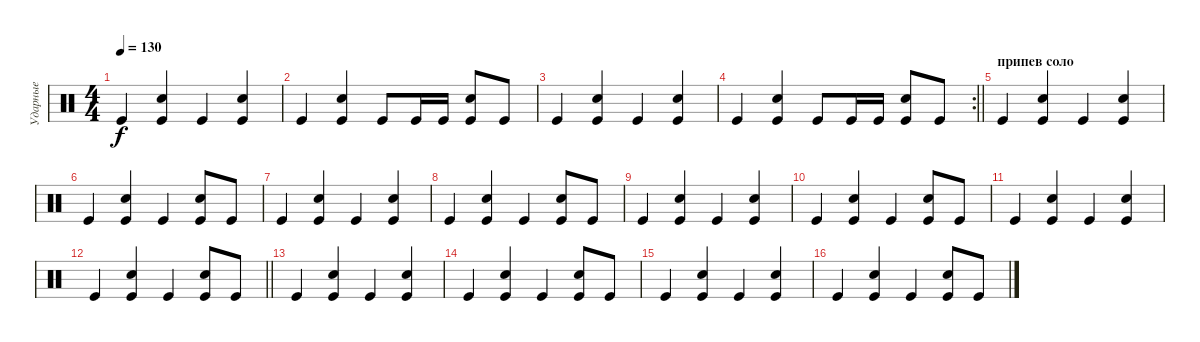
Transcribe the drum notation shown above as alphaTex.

\track ("Ударные" "Ударные") {instrument percussion}
\staff {score}
\articulation defaults
\ts (4 4)
\tempo 130
\clef neutral
\ks c "Kick (hit)".4{dy f}
("Kick (hit)" "Snare (hit) 2").4 "Kick (hit)".4 ("Kick (hit)" "Snare (hit) 2").4 |
"Kick (hit)".4 ("Kick (hit)" "Snare (hit) 2").4 "Kick (hit)".8 "Kick (hit)".16 "Kick (hit)".16 ("Kick (hit)" "Snare (hit) 2").8 "Kick (hit)".8 |
"Kick (hit)".4 ("Kick (hit)" "Snare (hit) 2").4 "Kick (hit)".4 ("Kick (hit)" "Snare (hit) 2").4 |
\rc 2
\barLineRight lightlight "Kick (hit)".4
("Kick (hit)" "Snare (hit) 2").4 "Kick (hit)".8 "Kick (hit)".16 "Kick (hit)".16 ("Kick (hit)" "Snare (hit) 2").8 "Kick (hit)".8 |
\section ("" "припев соло")
"Kick (hit)".4 ("Kick (hit)" "Snare (hit) 2").4 "Kick (hit)".4 ("Kick (hit)" "Snare (hit) 2").4 |
"Kick (hit)".4 ("Kick (hit)" "Snare (hit) 2").4 "Kick (hit)".4 ("Kick (hit)" "Snare (hit) 2").8 "Kick (hit)".8 |
"Kick (hit)".4 ("Kick (hit)" "Snare (hit) 2").4 "Kick (hit)".4 ("Kick (hit)" "Snare (hit) 2").4 |
"Kick (hit)".4 ("Kick (hit)" "Snare (hit) 2").4 "Kick (hit)".4 ("Kick (hit)" "Snare (hit) 2").8 "Kick (hit)".8 |
"Kick (hit)".4 ("Kick (hit)" "Snare (hit) 2").4 "Kick (hit)".4 ("Kick (hit)" "Snare (hit) 2").4 |
"Kick (hit)".4 ("Snare (hit) 2" "Kick (hit)").4 "Kick (hit)".4 ("Snare (hit) 2" "Kick (hit)").8 "Kick (hit)".8 |
"Kick (hit)".4 ("Snare (hit) 2" "Kick (hit)").4 "Kick (hit)".4 ("Snare (hit) 2" "Kick (hit)").4 |
\barLineRight lightlight "Kick (hit)".4
("Snare (hit) 2" "Kick (hit)").4 "Kick (hit)".4 ("Snare (hit) 2" "Kick (hit)").8 "Kick (hit)".8 |
"Kick (hit)".4 ("Kick (hit)" "Snare (hit) 2").4 "Kick (hit)".4 ("Kick (hit)" "Snare (hit) 2").4 |
"Kick (hit)".4 ("Kick (hit)" "Snare (hit) 2").4 "Kick (hit)".4 ("Kick (hit)" "Snare (hit) 2").8 "Kick (hit)".8 |
"Kick (hit)".4 ("Kick (hit)" "Snare (hit) 2").4 "Kick (hit)".4 ("Kick (hit)" "Snare (hit) 2").4 |
"Kick (hit)".4 ("Kick (hit)" "Snare (hit) 2").4 "Kick (hit)".4 ("Kick (hit)" "Snare (hit) 2").8 "Kick (hit)".8
